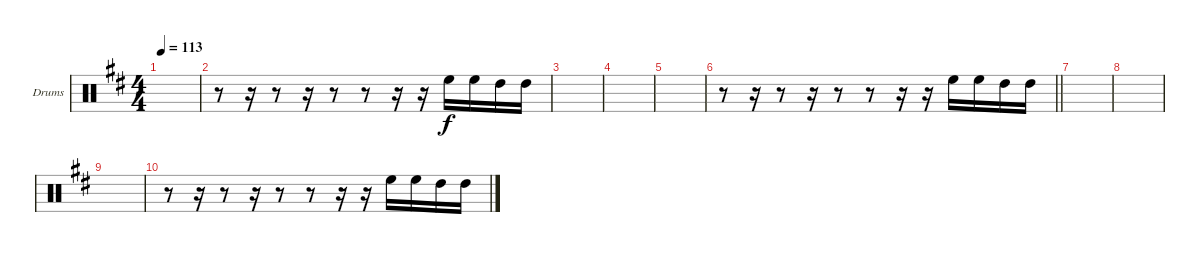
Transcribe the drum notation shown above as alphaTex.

\bracketExtendMode groupsimilarinstruments
\firstSystemTrackNameOrientation horizontal
\otherSystemsTrackNameOrientation horizontal
\track ("Tom" "Drums") {instrument percussion}
\staff {score}
\articulation defaults
\ts (4 4)
\tempo 113
\clef neutral
\scale
0.333333
\ks d
|
\scale
0.333333 r.8 r.16 r.8 r.16 r.8 r.8 r.16 r.16 "High Floor Tom (hit)".16 "High Floor Tom (hit)".16 "High Tom (hit)".16 "High Tom (hit)".16 |
\scale
0.333333 |
\scale
0.333333 |
\scale
0.333333 |
\scale
0.333333
\barLineRight lightlight
r.8 r.16 r.8 r.16 r.8 r.8 r.16 r.16 "High Floor Tom (hit)".16 "High Floor Tom (hit)".16 "High Tom (hit)".16 "High Tom (hit)".16 |
\scale
0.333333 |
\scale
0.333333 |
\scale
0.333333 |
\scale
0.333333 r.8 r.16 r.8 r.16 r.8 r.8 r.16 r.16 "High Floor Tom (hit)".16 "High Floor Tom (hit)".16 "High Tom (hit)".16 "High Tom (hit)".16 |
\scale
0.333333
